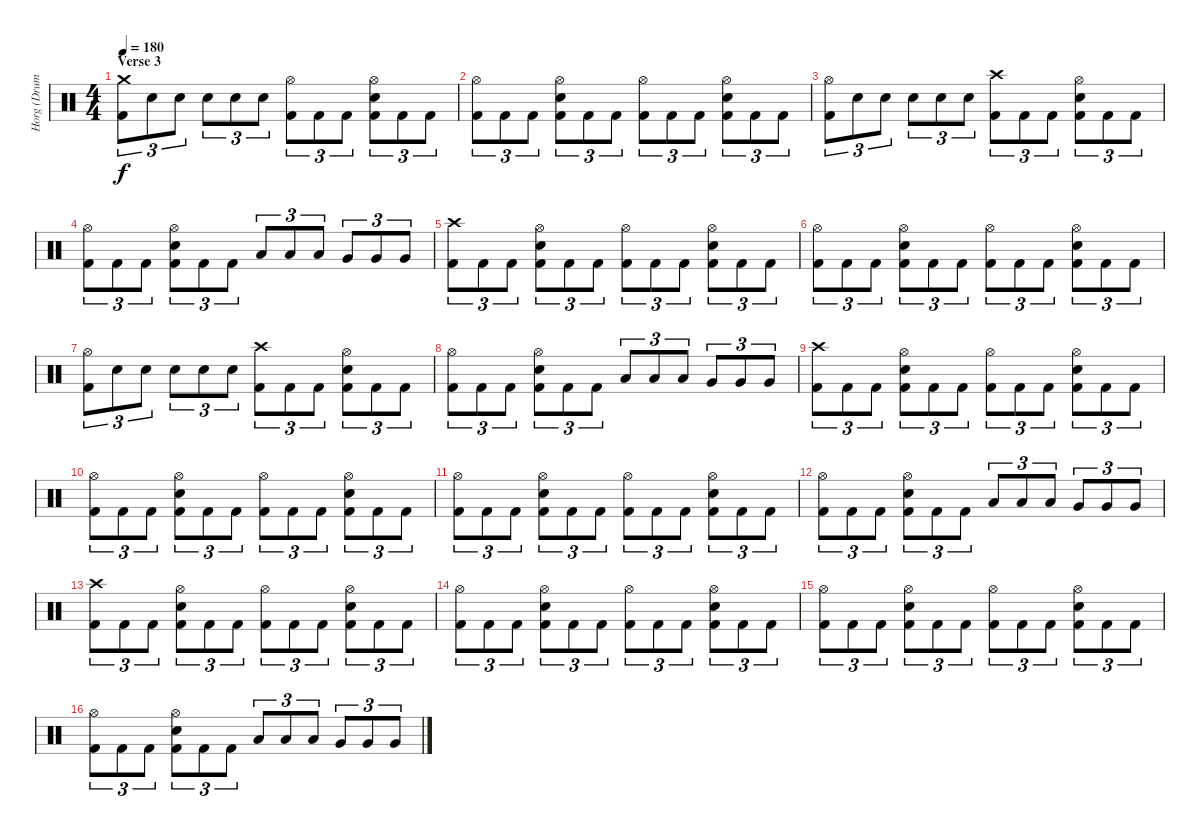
\track ("Horg (Drums)" "Horg (Drum") {instrument percussion}
\staff {score}
\articulation defaults
\ts (4 4)
\section ("" "Verse 3")
\tempo 180
\clef neutral
\ks c
("Crash medium (hit)" "Kick (hit) 2").8{tu (3 2) dy f} "Electric Snare (hit)".8{tu (3 2)} "Electric Snare (hit)".8{tu (3 2)} "Electric Snare (hit)".8{tu (3 2)} "Electric Snare (hit)".8{tu (3 2)} "Electric Snare (hit)".8{tu (3 2)} ("Hi-Hat (open)" "Kick (hit) 2").8{tu (3 2)} "Kick (hit) 2".8{tu (3 2)} "Kick (hit) 2".8{tu (3 2)} ("Hi-Hat (open)" "Electric Snare (hit)" "Kick (hit) 2").8{tu (3 2)} "Kick (hit) 2".8{tu (3 2)} "Kick (hit) 2".8{tu (3 2)} |
("Hi-Hat (open)" "Kick (hit) 2").8{tu (3 2)} "Kick (hit) 2".8{tu (3 2)} "Kick (hit) 2".8{tu (3 2)} ("Hi-Hat (open)" "Electric Snare (hit)" "Kick (hit) 2").8{tu (3 2)} "Kick (hit) 2".8{tu (3 2)} "Kick (hit) 2".8{tu (3 2)} ("Hi-Hat (open)" "Kick (hit) 2").8{tu (3 2)} "Kick (hit) 2".8{tu (3 2)} "Kick (hit) 2".8{tu (3 2)} ("Hi-Hat (open)" "Electric Snare (hit)" "Kick (hit) 2").8{tu (3 2)} "Kick (hit) 2".8{tu (3 2)} "Kick (hit) 2".8{tu (3 2)} |
("Hi-Hat (open)" "Kick (hit) 2").8{tu (3 2)} "Electric Snare (hit)".8{tu (3 2)} "Electric Snare (hit)".8{tu (3 2)} "Electric Snare (hit)".8{tu (3 2)} "Electric Snare (hit)".8{tu (3 2)} "Electric Snare (hit)".8{tu (3 2)} ("Crash high (hit)" "Kick (hit) 2").8{tu (3 2)} "Kick (hit) 2".8{tu (3 2)} "Kick (hit) 2".8{tu (3 2)} ("Hi-Hat (open)" "Electric Snare (hit)" "Kick (hit) 2").8{tu (3 2)} "Kick (hit) 2".8{tu (3 2)} "Kick (hit) 2".8{tu (3 2)} |
("Hi-Hat (open)" "Kick (hit) 2").8{tu (3 2)} "Kick (hit) 2".8{tu (3 2)} "Kick (hit) 2".8{tu (3 2)} ("Hi-Hat (open)" "Electric Snare (hit)" "Kick (hit) 2").8{tu (3 2)} "Kick (hit) 2".8{tu (3 2)} "Kick (hit) 2".8{tu (3 2)} "Low Tom (hit)".8{tu (3 2)} "Low Tom (hit)".8{tu (3 2)} "Low Tom (hit)".8{tu (3 2)} "Very Low Tom (hit)".8{tu (3 2)} "Very Low Tom (hit)".8{tu (3 2)} "Very Low Tom (hit)".8{tu (3 2)} |
("Crash high (hit)" "Kick (hit) 2").8{tu (3 2)} "Kick (hit) 2".8{tu (3 2)} "Kick (hit) 2".8{tu (3 2)} ("Hi-Hat (open)" "Electric Snare (hit)" "Kick (hit) 2").8{tu (3 2)} "Kick (hit) 2".8{tu (3 2)} "Kick (hit) 2".8{tu (3 2)} ("Hi-Hat (open)" "Kick (hit) 2").8{tu (3 2)} "Kick (hit) 2".8{tu (3 2)} "Kick (hit) 2".8{tu (3 2)} ("Hi-Hat (open)" "Electric Snare (hit)" "Kick (hit) 2").8{tu (3 2)} "Kick (hit) 2".8{tu (3 2)} "Kick (hit) 2".8{tu (3 2)} |
("Hi-Hat (open)" "Kick (hit) 2").8{tu (3 2)} "Kick (hit) 2".8{tu (3 2)} "Kick (hit) 2".8{tu (3 2)} ("Hi-Hat (open)" "Electric Snare (hit)" "Kick (hit) 2").8{tu (3 2)} "Kick (hit) 2".8{tu (3 2)} "Kick (hit) 2".8{tu (3 2)} ("Hi-Hat (open)" "Kick (hit) 2").8{tu (3 2)} "Kick (hit) 2".8{tu (3 2)} "Kick (hit) 2".8{tu (3 2)} ("Hi-Hat (open)" "Electric Snare (hit)" "Kick (hit) 2").8{tu (3 2)} "Kick (hit) 2".8{tu (3 2)} "Kick (hit) 2".8{tu (3 2)} |
("Hi-Hat (open)" "Kick (hit) 2").8{tu (3 2)} "Electric Snare (hit)".8{tu (3 2)} "Electric Snare (hit)".8{tu (3 2)} "Electric Snare (hit)".8{tu (3 2)} "Electric Snare (hit)".8{tu (3 2)} "Electric Snare (hit)".8{tu (3 2)} ("Crash high (hit)" "Kick (hit) 2").8{tu (3 2)} "Kick (hit) 2".8{tu (3 2)} "Kick (hit) 2".8{tu (3 2)} ("Hi-Hat (open)" "Electric Snare (hit)" "Kick (hit) 2").8{tu (3 2)} "Kick (hit) 2".8{tu (3 2)} "Kick (hit) 2".8{tu (3 2)} |
("Hi-Hat (open)" "Kick (hit) 2").8{tu (3 2)} "Kick (hit) 2".8{tu (3 2)} "Kick (hit) 2".8{tu (3 2)} ("Hi-Hat (open)" "Electric Snare (hit)" "Kick (hit) 2").8{tu (3 2)} "Kick (hit) 2".8{tu (3 2)} "Kick (hit) 2".8{tu (3 2)} "Low Tom (hit)".8{tu (3 2)} "Low Tom (hit)".8{tu (3 2)} "Low Tom (hit)".8{tu (3 2)} "Very Low Tom (hit)".8{tu (3 2)} "Very Low Tom (hit)".8{tu (3 2)} "Very Low Tom (hit)".8{tu (3 2)} |
("Crash high (hit)" "Kick (hit) 2").8{tu (3 2)} "Kick (hit) 2".8{tu (3 2)} "Kick (hit) 2".8{tu (3 2)} ("Hi-Hat (open)" "Electric Snare (hit)" "Kick (hit) 2").8{tu (3 2)} "Kick (hit) 2".8{tu (3 2)} "Kick (hit) 2".8{tu (3 2)} ("Hi-Hat (open)" "Kick (hit) 2").8{tu (3 2)} "Kick (hit) 2".8{tu (3 2)} "Kick (hit) 2".8{tu (3 2)} ("Hi-Hat (open)" "Electric Snare (hit)" "Kick (hit) 2").8{tu (3 2)} "Kick (hit) 2".8{tu (3 2)} "Kick (hit) 2".8{tu (3 2)} |
("Hi-Hat (open)" "Kick (hit) 2").8{tu (3 2)} "Kick (hit) 2".8{tu (3 2)} "Kick (hit) 2".8{tu (3 2)} ("Hi-Hat (open)" "Electric Snare (hit)" "Kick (hit) 2").8{tu (3 2)} "Kick (hit) 2".8{tu (3 2)} "Kick (hit) 2".8{tu (3 2)} ("Hi-Hat (open)" "Kick (hit) 2").8{tu (3 2)} "Kick (hit) 2".8{tu (3 2)} "Kick (hit) 2".8{tu (3 2)} ("Hi-Hat (open)" "Electric Snare (hit)" "Kick (hit) 2").8{tu (3 2)} "Kick (hit) 2".8{tu (3 2)} "Kick (hit) 2".8{tu (3 2)} |
("Hi-Hat (open)" "Kick (hit) 2").8{tu (3 2)} "Kick (hit) 2".8{tu (3 2)} "Kick (hit) 2".8{tu (3 2)} ("Hi-Hat (open)" "Electric Snare (hit)" "Kick (hit) 2").8{tu (3 2)} "Kick (hit) 2".8{tu (3 2)} "Kick (hit) 2".8{tu (3 2)} ("Hi-Hat (open)" "Kick (hit) 2").8{tu (3 2)} "Kick (hit) 2".8{tu (3 2)} "Kick (hit) 2".8{tu (3 2)} ("Hi-Hat (open)" "Electric Snare (hit)" "Kick (hit) 2").8{tu (3 2)} "Kick (hit) 2".8{tu (3 2)} "Kick (hit) 2".8{tu (3 2)} |
("Hi-Hat (open)" "Kick (hit) 2").8{tu (3 2)} "Kick (hit) 2".8{tu (3 2)} "Kick (hit) 2".8{tu (3 2)} ("Hi-Hat (open)" "Electric Snare (hit)" "Kick (hit) 2").8{tu (3 2)} "Kick (hit) 2".8{tu (3 2)} "Kick (hit) 2".8{tu (3 2)} "Low Tom (hit)".8{tu (3 2)} "Low Tom (hit)".8{tu (3 2)} "Low Tom (hit)".8{tu (3 2)} "Very Low Tom (hit)".8{tu (3 2)} "Very Low Tom (hit)".8{tu (3 2)} "Very Low Tom (hit)".8{tu (3 2)} |
("Crash high (hit)" "Kick (hit) 2").8{tu (3 2)} "Kick (hit) 2".8{tu (3 2)} "Kick (hit) 2".8{tu (3 2)} ("Hi-Hat (open)" "Electric Snare (hit)" "Kick (hit) 2").8{tu (3 2)} "Kick (hit) 2".8{tu (3 2)} "Kick (hit) 2".8{tu (3 2)} ("Hi-Hat (open)" "Kick (hit) 2").8{tu (3 2)} "Kick (hit) 2".8{tu (3 2)} "Kick (hit) 2".8{tu (3 2)} ("Hi-Hat (open)" "Electric Snare (hit)" "Kick (hit) 2").8{tu (3 2)} "Kick (hit) 2".8{tu (3 2)} "Kick (hit) 2".8{tu (3 2)} |
("Hi-Hat (open)" "Kick (hit) 2").8{tu (3 2)} "Kick (hit) 2".8{tu (3 2)} "Kick (hit) 2".8{tu (3 2)} ("Hi-Hat (open)" "Electric Snare (hit)" "Kick (hit) 2").8{tu (3 2)} "Kick (hit) 2".8{tu (3 2)} "Kick (hit) 2".8{tu (3 2)} ("Hi-Hat (open)" "Kick (hit) 2").8{tu (3 2)} "Kick (hit) 2".8{tu (3 2)} "Kick (hit) 2".8{tu (3 2)} ("Hi-Hat (open)" "Electric Snare (hit)" "Kick (hit) 2").8{tu (3 2)} "Kick (hit) 2".8{tu (3 2)} "Kick (hit) 2".8{tu (3 2)} |
("Hi-Hat (open)" "Kick (hit) 2").8{tu (3 2)} "Kick (hit) 2".8{tu (3 2)} "Kick (hit) 2".8{tu (3 2)} ("Hi-Hat (open)" "Electric Snare (hit)" "Kick (hit) 2").8{tu (3 2)} "Kick (hit) 2".8{tu (3 2)} "Kick (hit) 2".8{tu (3 2)} ("Hi-Hat (open)" "Kick (hit) 2").8{tu (3 2)} "Kick (hit) 2".8{tu (3 2)} "Kick (hit) 2".8{tu (3 2)} ("Hi-Hat (open)" "Electric Snare (hit)" "Kick (hit) 2").8{tu (3 2)} "Kick (hit) 2".8{tu (3 2)} "Kick (hit) 2".8{tu (3 2)} |
("Hi-Hat (open)" "Kick (hit) 2").8{tu (3 2)} "Kick (hit) 2".8{tu (3 2)} "Kick (hit) 2".8{tu (3 2)} ("Hi-Hat (open)" "Electric Snare (hit)" "Kick (hit) 2").8{tu (3 2)} "Kick (hit) 2".8{tu (3 2)} "Kick (hit) 2".8{tu (3 2)} "Low Tom (hit)".8{tu (3 2)} "Low Tom (hit)".8{tu (3 2)} "Low Tom (hit)".8{tu (3 2)} "Very Low Tom (hit)".8{tu (3 2)} "Very Low Tom (hit)".8{tu (3 2)} "Very Low Tom (hit)".8{tu (3 2)}
